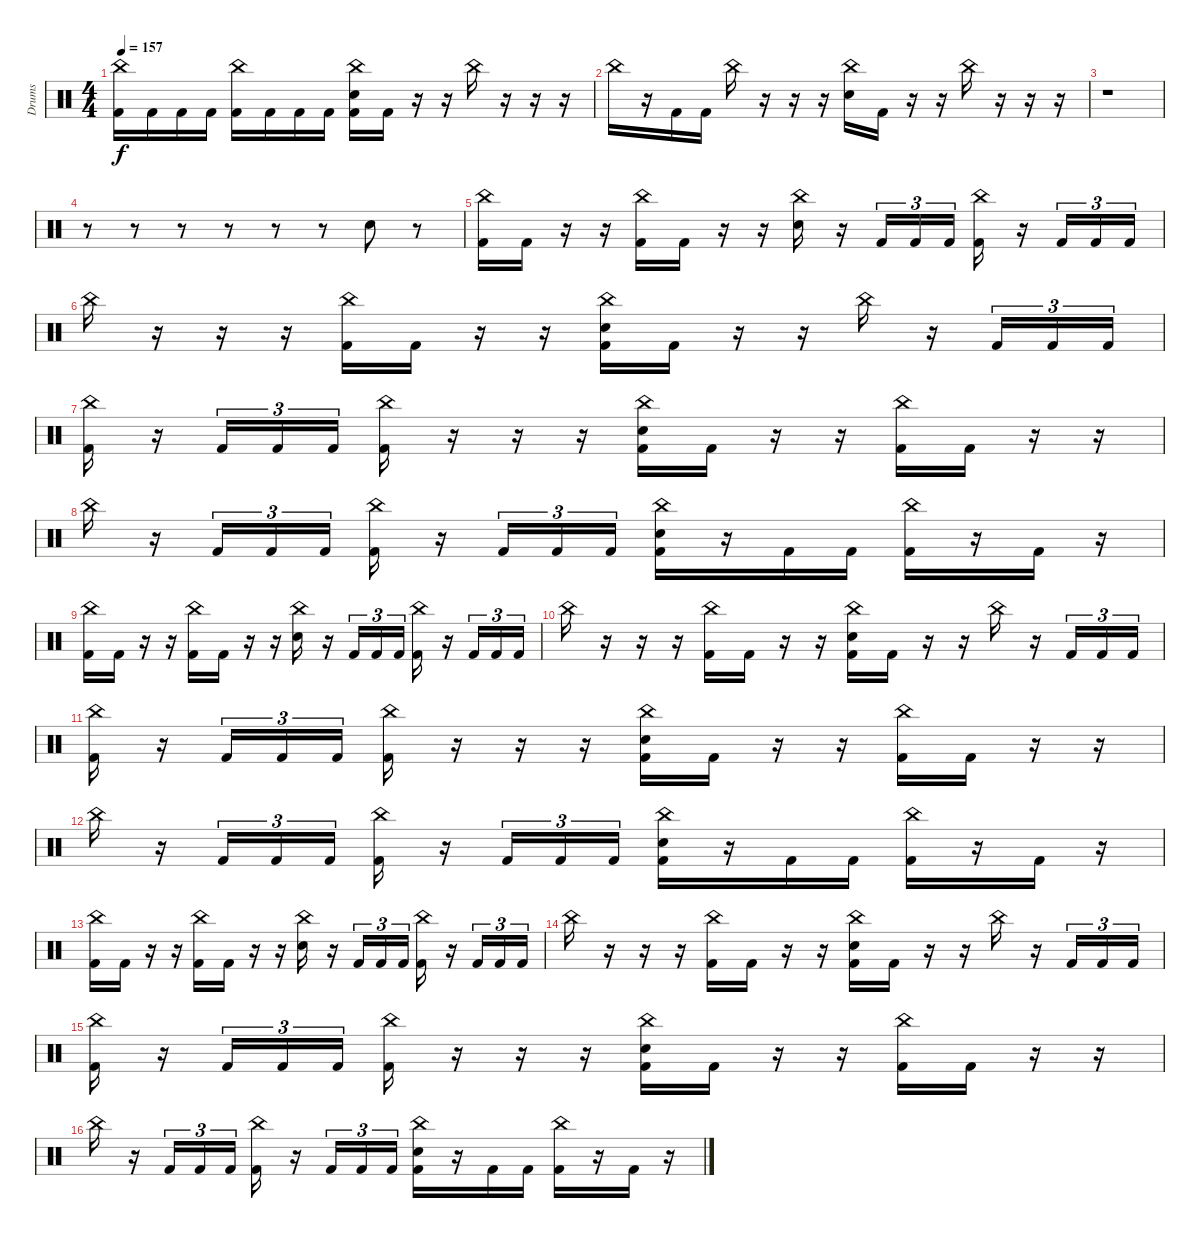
\track ("Drums" "Drums") {instrument percussion}
\staff {score}
\articulation defaults
\ts (4 4)
\tempo 157
\clef neutral
\ks c
("China (hit)" "Kick (hit) 2").16{dy f} "Kick (hit) 2".16 "Kick (hit) 2".16 "Kick (hit) 2".16 ("China (hit)" "Kick (hit) 2").16 "Kick (hit) 2".16 "Kick (hit) 2".16 "Kick (hit) 2".16 ("China (hit)" "Electric Snare (hit)" "Kick (hit) 2").16 "Kick (hit) 2".16 r.16 r.16 "China (hit)".16 r.16 r.16 r.16 |
"China (hit)".16 r.16 "Kick (hit) 2".16 "Kick (hit) 2".16 "China (hit)".16 r.16 r.16 r.16 ("China (hit)" "Electric Snare (hit)").16 "Kick (hit) 2".16 r.16 r.16 "China (hit)".16 r.16 r.16 r.16 |
r.1 |
r.8 r.8 r.8 r.8 r.8 r.8 "Electric Snare (hit)".8 r.8 |
("China (hit)" "Kick (hit) 2").16 "Kick (hit) 2".16 r.16 r.16 ("China (hit)" "Kick (hit) 2").16 "Kick (hit) 2".16 r.16 r.16 ("China (hit)" "Electric Snare (hit)").16 r.16 "Kick (hit) 2".16{tu (3 2)} "Kick (hit) 2".16{tu (3 2)} "Kick (hit) 2".16{tu (3 2)} ("China (hit)" "Kick (hit) 2").16 r.16 "Kick (hit) 2".16{tu (3 2)} "Kick (hit) 2".16{tu (3 2)} "Kick (hit) 2".16{tu (3 2)} |
"China (hit)".16 r.16 r.16 r.16 ("China (hit)" "Kick (hit) 2").16 "Kick (hit) 2".16 r.16 r.16 ("China (hit)" "Electric Snare (hit)" "Kick (hit) 2").16 "Kick (hit) 2".16 r.16 r.16 "China (hit)".16 r.16 "Kick (hit) 2".16{tu (3 2)} "Kick (hit) 2".16{tu (3 2)} "Kick (hit) 2".16{tu (3 2)} |
("China (hit)" "Kick (hit) 2").16 r.16 "Kick (hit) 2".16{tu (3 2)} "Kick (hit) 2".16{tu (3 2)} "Kick (hit) 2".16{tu (3 2)} ("China (hit)" "Kick (hit) 2").16 r.16 r.16 r.16 ("China (hit)" "Electric Snare (hit)" "Kick (hit) 2").16 "Kick (hit) 2".16 r.16 r.16 ("China (hit)" "Kick (hit) 2").16 "Kick (hit) 2".16 r.16 r.16 |
"China (hit)".16 r.16 "Kick (hit) 2".16{tu (3 2)} "Kick (hit) 2".16{tu (3 2)} "Kick (hit) 2".16{tu (3 2)} ("China (hit)" "Kick (hit) 2").16 r.16 "Kick (hit) 2".16{tu (3 2)} "Kick (hit) 2".16{tu (3 2)} "Kick (hit) 2".16{tu (3 2)} ("China (hit)" "Electric Snare (hit)" "Kick (hit) 2").16 r.16 "Kick (hit) 2".16 "Kick (hit) 2".16 ("China (hit)" "Kick (hit) 2").16 r.16 "Kick (hit) 2".16 r.16 |
("China (hit)" "Kick (hit) 2").16 "Kick (hit) 2".16 r.16 r.16 ("China (hit)" "Kick (hit) 2").16 "Kick (hit) 2".16 r.16 r.16 ("China (hit)" "Electric Snare (hit)").16 r.16 "Kick (hit) 2".16{tu (3 2)} "Kick (hit) 2".16{tu (3 2)} "Kick (hit) 2".16{tu (3 2)} ("China (hit)" "Kick (hit) 2").16 r.16 "Kick (hit) 2".16{tu (3 2)} "Kick (hit) 2".16{tu (3 2)} "Kick (hit) 2".16{tu (3 2)} |
"China (hit)".16 r.16 r.16 r.16 ("China (hit)" "Kick (hit) 2").16 "Kick (hit) 2".16 r.16 r.16 ("China (hit)" "Electric Snare (hit)" "Kick (hit) 2").16 "Kick (hit) 2".16 r.16 r.16 "China (hit)".16 r.16 "Kick (hit) 2".16{tu (3 2)} "Kick (hit) 2".16{tu (3 2)} "Kick (hit) 2".16{tu (3 2)} |
("China (hit)" "Kick (hit) 2").16 r.16 "Kick (hit) 2".16{tu (3 2)} "Kick (hit) 2".16{tu (3 2)} "Kick (hit) 2".16{tu (3 2)} ("China (hit)" "Kick (hit) 2").16 r.16 r.16 r.16 ("China (hit)" "Electric Snare (hit)" "Kick (hit) 2").16 "Kick (hit) 2".16 r.16 r.16 ("China (hit)" "Kick (hit) 2").16 "Kick (hit) 2".16 r.16 r.16 |
"China (hit)".16 r.16 "Kick (hit) 2".16{tu (3 2)} "Kick (hit) 2".16{tu (3 2)} "Kick (hit) 2".16{tu (3 2)} ("China (hit)" "Kick (hit) 2").16 r.16 "Kick (hit) 2".16{tu (3 2)} "Kick (hit) 2".16{tu (3 2)} "Kick (hit) 2".16{tu (3 2)} ("China (hit)" "Electric Snare (hit)" "Kick (hit) 2").16 r.16 "Kick (hit) 2".16 "Kick (hit) 2".16 ("China (hit)" "Kick (hit) 2").16 r.16 "Kick (hit) 2".16 r.16 |
("China (hit)" "Kick (hit) 2").16 "Kick (hit) 2".16 r.16 r.16 ("China (hit)" "Kick (hit) 2").16 "Kick (hit) 2".16 r.16 r.16 ("China (hit)" "Electric Snare (hit)").16 r.16 "Kick (hit) 2".16{tu (3 2)} "Kick (hit) 2".16{tu (3 2)} "Kick (hit) 2".16{tu (3 2)} ("China (hit)" "Kick (hit) 2").16 r.16 "Kick (hit) 2".16{tu (3 2)} "Kick (hit) 2".16{tu (3 2)} "Kick (hit) 2".16{tu (3 2)} |
"China (hit)".16 r.16 r.16 r.16 ("China (hit)" "Kick (hit) 2").16 "Kick (hit) 2".16 r.16 r.16 ("China (hit)" "Electric Snare (hit)" "Kick (hit) 2").16 "Kick (hit) 2".16 r.16 r.16 "China (hit)".16 r.16 "Kick (hit) 2".16{tu (3 2)} "Kick (hit) 2".16{tu (3 2)} "Kick (hit) 2".16{tu (3 2)} |
("China (hit)" "Kick (hit) 2").16 r.16 "Kick (hit) 2".16{tu (3 2)} "Kick (hit) 2".16{tu (3 2)} "Kick (hit) 2".16{tu (3 2)} ("China (hit)" "Kick (hit) 2").16 r.16 r.16 r.16 ("China (hit)" "Electric Snare (hit)" "Kick (hit) 2").16 "Kick (hit) 2".16 r.16 r.16 ("China (hit)" "Kick (hit) 2").16 "Kick (hit) 2".16 r.16 r.16 |
"China (hit)".16 r.16 "Kick (hit) 2".16{tu (3 2)} "Kick (hit) 2".16{tu (3 2)} "Kick (hit) 2".16{tu (3 2)} ("China (hit)" "Kick (hit) 2").16 r.16 "Kick (hit) 2".16{tu (3 2)} "Kick (hit) 2".16{tu (3 2)} "Kick (hit) 2".16{tu (3 2)} ("China (hit)" "Electric Snare (hit)" "Kick (hit) 2").16 r.16 "Kick (hit) 2".16 "Kick (hit) 2".16 ("China (hit)" "Kick (hit) 2").16 r.16 "Kick (hit) 2".16 r.16
